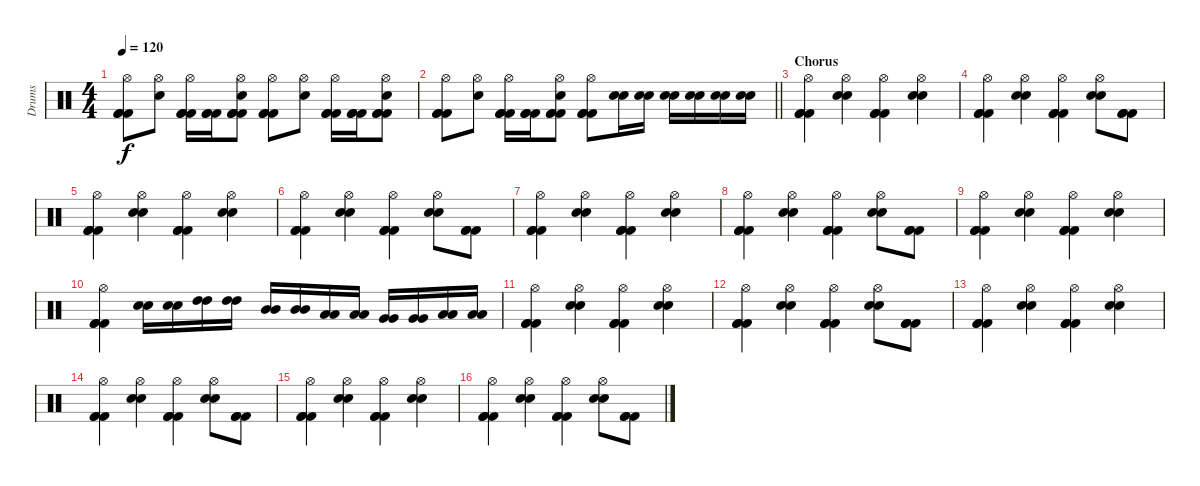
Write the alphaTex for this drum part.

\track ("Drums" "Drums") {instrument percussion}
\staff {score}
\articulation defaults
\ts (4 4)
\tempo 120
\clef neutral
\ks c
("Hi-Hat (open)" "Kick (hit) 2" "Kick (hit) 2" "Kick (hit) 2").8{dy f} ("Hi-Hat (open)" "Snare (hit) 2").8 ("Hi-Hat (open)" "Kick (hit) 2" "Kick (hit) 2" "Kick (hit) 2").16 ("Kick (hit) 2" "Kick (hit) 2" "Kick (hit) 2").16 ("Hi-Hat (open)" "Snare (hit) 2" "Kick (hit) 2" "Kick (hit) 2" "Kick (hit) 2").8 ("Hi-Hat (open)" "Kick (hit) 2" "Kick (hit) 2" "Kick (hit) 2").8 ("Hi-Hat (open)" "Snare (hit) 2").8 ("Hi-Hat (open)" "Kick (hit) 2" "Kick (hit) 2" "Kick (hit) 2").16 ("Kick (hit) 2" "Kick (hit) 2" "Kick (hit) 2").16 ("Hi-Hat (open)" "Snare (hit) 2" "Kick (hit) 2" "Kick (hit) 2" "Kick (hit) 2").8 |
\barLineRight lightlight
("Hi-Hat (open)" "Kick (hit) 2" "Kick (hit) 2" "Kick (hit) 2").8 ("Hi-Hat (open)" "Snare (hit) 2").8 ("Hi-Hat (open)" "Kick (hit) 2" "Kick (hit) 2" "Kick (hit) 2").16 ("Kick (hit) 2" "Kick (hit) 2" "Kick (hit) 2").16 ("Hi-Hat (open)" "Snare (hit) 2" "Kick (hit) 2" "Kick (hit) 2" "Kick (hit) 2").8 ("Hi-Hat (open)" "Kick (hit) 2" "Kick (hit) 2" "Kick (hit) 2").8 ("Snare (hit) 2" "Snare (hit) 2").16 ("Snare (hit) 2" "Snare (hit) 2").16 ("Snare (hit) 2" "Snare (hit) 2").16 ("Snare (hit) 2" "Snare (hit) 2").16 ("Snare (hit) 2" "Snare (hit) 2").16 ("Snare (hit) 2" "Snare (hit) 2").16 |
\section ("" "Chorus")
("Hi-Hat (open)" "Kick (hit) 2" "Kick (hit) 2" "Kick (hit) 2").4 ("Hi-Hat (open)" "Snare (hit) 2" "Snare (hit) 2").4 ("Hi-Hat (open)" "Kick (hit) 2" "Kick (hit) 2" "Kick (hit) 2").4 ("Hi-Hat (open)" "Snare (hit) 2" "Snare (hit) 2").4 |
("Hi-Hat (open)" "Kick (hit) 2" "Kick (hit) 2" "Kick (hit) 2").4 ("Hi-Hat (open)" "Snare (hit) 2" "Snare (hit) 2").4 ("Hi-Hat (open)" "Kick (hit) 2" "Kick (hit) 2" "Kick (hit) 2").4 ("Hi-Hat (open)" "Snare (hit) 2" "Snare (hit) 2").8 ("Kick (hit) 2" "Kick (hit) 2" "Kick (hit) 2").8 |
("Hi-Hat (open)" "Kick (hit) 2" "Kick (hit) 2" "Kick (hit) 2").4 ("Hi-Hat (open)" "Snare (hit) 2" "Snare (hit) 2").4 ("Hi-Hat (open)" "Kick (hit) 2" "Kick (hit) 2" "Kick (hit) 2").4 ("Hi-Hat (open)" "Snare (hit) 2" "Snare (hit) 2").4 |
("Hi-Hat (open)" "Kick (hit) 2" "Kick (hit) 2" "Kick (hit) 2").4 ("Hi-Hat (open)" "Snare (hit) 2" "Snare (hit) 2").4 ("Hi-Hat (open)" "Kick (hit) 2" "Kick (hit) 2" "Kick (hit) 2").4 ("Hi-Hat (open)" "Snare (hit) 2" "Snare (hit) 2").8 ("Kick (hit) 2" "Kick (hit) 2" "Kick (hit) 2").8 |
("Hi-Hat (open)" "Kick (hit) 2" "Kick (hit) 2" "Kick (hit) 2").4 ("Hi-Hat (open)" "Snare (hit) 2" "Snare (hit) 2").4 ("Hi-Hat (open)" "Kick (hit) 2" "Kick (hit) 2" "Kick (hit) 2").4 ("Hi-Hat (open)" "Snare (hit) 2" "Snare (hit) 2").4 |
("Hi-Hat (open)" "Kick (hit) 2" "Kick (hit) 2" "Kick (hit) 2").4 ("Hi-Hat (open)" "Snare (hit) 2" "Snare (hit) 2").4 ("Hi-Hat (open)" "Kick (hit) 2" "Kick (hit) 2" "Kick (hit) 2").4 ("Hi-Hat (open)" "Snare (hit) 2" "Snare (hit) 2").8 ("Kick (hit) 2" "Kick (hit) 2" "Kick (hit) 2").8 |
("Hi-Hat (open)" "Kick (hit) 2" "Kick (hit) 2" "Kick (hit) 2").4 ("Hi-Hat (open)" "Snare (hit) 2" "Snare (hit) 2").4 ("Hi-Hat (open)" "Kick (hit) 2" "Kick (hit) 2" "Kick (hit) 2").4 ("Hi-Hat (open)" "Snare (hit) 2" "Snare (hit) 2").4 |
("Hi-Hat (open)" "Kick (hit) 2" "Kick (hit) 2" "Kick (hit) 2").4 ("Snare (hit) 2" "Snare (hit) 2").16 ("Snare (hit) 2" "Snare (hit) 2").16 ("High Tom (hit)" "High Tom (hit)").16 ("High Tom (hit)" "High Tom (hit)").16 ("Mid Tom (hit)" "Mid Tom (hit)").16 ("Mid Tom (hit)" "Mid Tom (hit)").16 ("Low Tom (hit)" "Low Tom (hit)").16 ("Low Tom (hit)" "Low Tom (hit)").16 ("Very Low Tom (hit)" "Very Low Tom (hit)").16 ("Very Low Tom (hit)" "Very Low Tom (hit)").16 ("Low Floor Tom (hit)" "Low Floor Tom (hit)").16 ("Low Floor Tom (hit)" "Low Floor Tom (hit)").16 |
("Hi-Hat (open)" "Kick (hit) 2" "Kick (hit) 2" "Kick (hit) 2").4 ("Hi-Hat (open)" "Snare (hit) 2" "Snare (hit) 2").4 ("Hi-Hat (open)" "Kick (hit) 2" "Kick (hit) 2" "Kick (hit) 2").4 ("Hi-Hat (open)" "Snare (hit) 2" "Snare (hit) 2").4 |
("Hi-Hat (open)" "Kick (hit) 2" "Kick (hit) 2" "Kick (hit) 2").4 ("Hi-Hat (open)" "Snare (hit) 2" "Snare (hit) 2").4 ("Hi-Hat (open)" "Kick (hit) 2" "Kick (hit) 2" "Kick (hit) 2").4 ("Hi-Hat (open)" "Snare (hit) 2" "Snare (hit) 2").8 ("Kick (hit) 2" "Kick (hit) 2" "Kick (hit) 2").8 |
("Hi-Hat (open)" "Kick (hit) 2" "Kick (hit) 2" "Kick (hit) 2").4 ("Hi-Hat (open)" "Snare (hit) 2" "Snare (hit) 2").4 ("Hi-Hat (open)" "Kick (hit) 2" "Kick (hit) 2" "Kick (hit) 2").4 ("Hi-Hat (open)" "Snare (hit) 2" "Snare (hit) 2").4 |
("Hi-Hat (open)" "Kick (hit) 2" "Kick (hit) 2" "Kick (hit) 2").4 ("Hi-Hat (open)" "Snare (hit) 2" "Snare (hit) 2").4 ("Hi-Hat (open)" "Kick (hit) 2" "Kick (hit) 2" "Kick (hit) 2").4 ("Hi-Hat (open)" "Snare (hit) 2" "Snare (hit) 2").8 ("Kick (hit) 2" "Kick (hit) 2" "Kick (hit) 2").8 |
("Hi-Hat (open)" "Kick (hit) 2" "Kick (hit) 2" "Kick (hit) 2").4 ("Hi-Hat (open)" "Snare (hit) 2" "Snare (hit) 2").4 ("Hi-Hat (open)" "Kick (hit) 2" "Kick (hit) 2" "Kick (hit) 2").4 ("Hi-Hat (open)" "Snare (hit) 2" "Snare (hit) 2").4 |
("Hi-Hat (open)" "Kick (hit) 2" "Kick (hit) 2" "Kick (hit) 2").4 ("Hi-Hat (open)" "Snare (hit) 2" "Snare (hit) 2").4 ("Hi-Hat (open)" "Kick (hit) 2" "Kick (hit) 2" "Kick (hit) 2").4 ("Hi-Hat (open)" "Snare (hit) 2" "Snare (hit) 2").8 ("Kick (hit) 2" "Kick (hit) 2" "Kick (hit) 2").8
